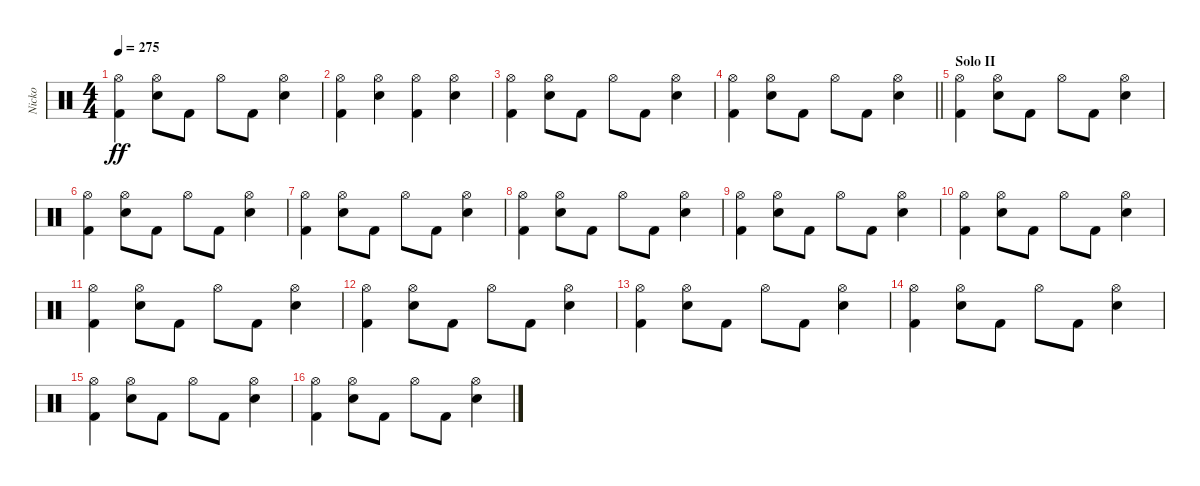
\track ("Nicko" "Nicko") {instrument percussion}
\staff {score}
\articulation defaults
\ts (4 4)
\tempo 275
\clef neutral
\ks c
("Kick (hit) 2" "Hi-Hat (open)").4{dy ff} ("Snare (hit) 2" "Hi-Hat (open)").8 "Kick (hit) 2".8 "Hi-Hat (open)".8 "Kick (hit) 2".8 ("Snare (hit) 2" "Hi-Hat (open)").4 |
("Kick (hit) 2" "Hi-Hat (open)").4 ("Snare (hit) 2" "Hi-Hat (open)").4 ("Kick (hit) 2" "Hi-Hat (open)").4 ("Snare (hit) 2" "Hi-Hat (open)").4 |
("Kick (hit) 2" "Hi-Hat (open)").4 ("Snare (hit) 2" "Hi-Hat (open)").8 "Kick (hit) 2".8 "Hi-Hat (open)".8 "Kick (hit) 2".8 ("Snare (hit) 2" "Hi-Hat (open)").4 |
\barLineRight lightlight
("Kick (hit) 2" "Hi-Hat (open)").4 ("Snare (hit) 2" "Hi-Hat (open)").8 "Kick (hit) 2".8 "Hi-Hat (open)".8 "Kick (hit) 2".8 ("Snare (hit) 2" "Hi-Hat (open)").4 |
\section ("" "Solo II")
("Kick (hit) 2" "Hi-Hat (open)").4 ("Snare (hit) 2" "Hi-Hat (open)").8 "Kick (hit) 2".8 "Hi-Hat (open)".8 "Kick (hit) 2".8 ("Snare (hit) 2" "Hi-Hat (open)").4 |
("Kick (hit) 2" "Hi-Hat (open)").4 ("Snare (hit) 2" "Hi-Hat (open)").8 "Kick (hit) 2".8 "Hi-Hat (open)".8 "Kick (hit) 2".8 ("Snare (hit) 2" "Hi-Hat (open)").4 |
("Kick (hit) 2" "Hi-Hat (open)").4 ("Snare (hit) 2" "Hi-Hat (open)").8 "Kick (hit) 2".8 "Hi-Hat (open)".8 "Kick (hit) 2".8 ("Snare (hit) 2" "Hi-Hat (open)").4 |
("Kick (hit) 2" "Hi-Hat (open)").4 ("Snare (hit) 2" "Hi-Hat (open)").8 "Kick (hit) 2".8 "Hi-Hat (open)".8 "Kick (hit) 2".8 ("Snare (hit) 2" "Hi-Hat (open)").4 |
("Kick (hit) 2" "Hi-Hat (open)").4 ("Snare (hit) 2" "Hi-Hat (open)").8 "Kick (hit) 2".8 "Hi-Hat (open)".8 "Kick (hit) 2".8 ("Snare (hit) 2" "Hi-Hat (open)").4 |
("Kick (hit) 2" "Hi-Hat (open)").4 ("Snare (hit) 2" "Hi-Hat (open)").8 "Kick (hit) 2".8 "Hi-Hat (open)".8 "Kick (hit) 2".8 ("Snare (hit) 2" "Hi-Hat (open)").4 |
("Kick (hit) 2" "Hi-Hat (open)").4 ("Snare (hit) 2" "Hi-Hat (open)").8 "Kick (hit) 2".8 "Hi-Hat (open)".8 "Kick (hit) 2".8 ("Snare (hit) 2" "Hi-Hat (open)").4 |
("Kick (hit) 2" "Hi-Hat (open)").4 ("Snare (hit) 2" "Hi-Hat (open)").8 "Kick (hit) 2".8 "Hi-Hat (open)".8 "Kick (hit) 2".8 ("Snare (hit) 2" "Hi-Hat (open)").4 |
("Kick (hit) 2" "Hi-Hat (open)").4 ("Snare (hit) 2" "Hi-Hat (open)").8 "Kick (hit) 2".8 "Hi-Hat (open)".8 "Kick (hit) 2".8 ("Snare (hit) 2" "Hi-Hat (open)").4 |
("Kick (hit) 2" "Hi-Hat (open)").4 ("Snare (hit) 2" "Hi-Hat (open)").8 "Kick (hit) 2".8 "Hi-Hat (open)".8 "Kick (hit) 2".8 ("Snare (hit) 2" "Hi-Hat (open)").4 |
("Kick (hit) 2" "Hi-Hat (open)").4 ("Snare (hit) 2" "Hi-Hat (open)").8 "Kick (hit) 2".8 "Hi-Hat (open)".8 "Kick (hit) 2".8 ("Snare (hit) 2" "Hi-Hat (open)").4 |
("Kick (hit) 2" "Hi-Hat (open)").4 ("Snare (hit) 2" "Hi-Hat (open)").8 "Kick (hit) 2".8 "Hi-Hat (open)".8 "Kick (hit) 2".8 ("Snare (hit) 2" "Hi-Hat (open)").4
